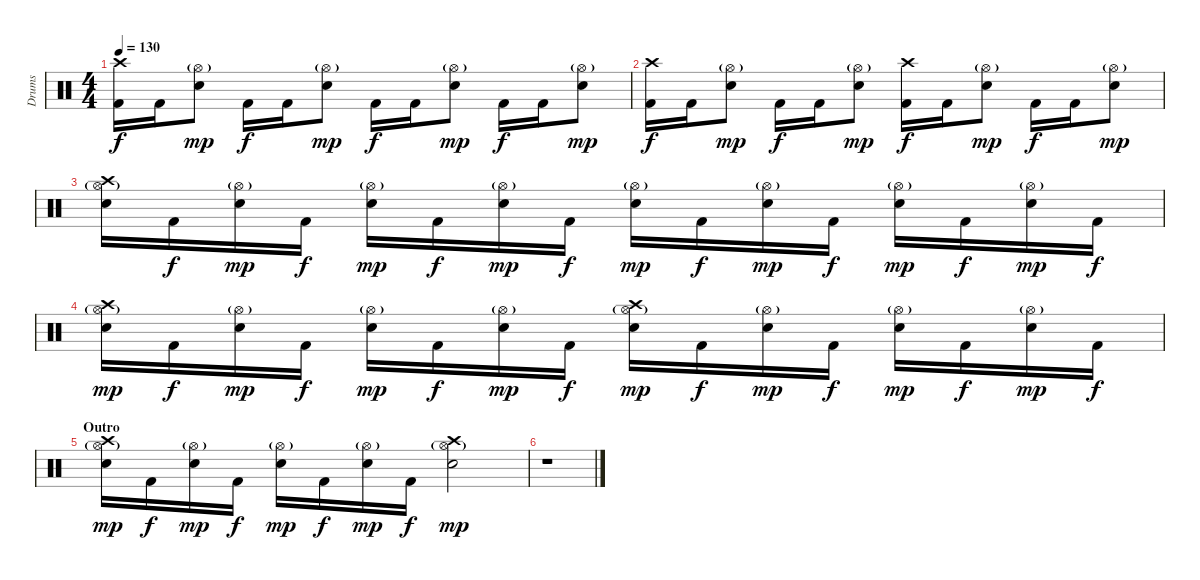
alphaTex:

\track ("Drums" "Drums") {instrument percussion}
\staff {score}
\articulation defaults
\ts (4 4)
\tempo 130
\clef neutral
\ks c
("Crash high (hit)" "Kick (hit) 2").16{dy f} "Kick (hit) 2".16 ("Hi-Hat (open)"{g} "Electric Snare (hit)").8{dy mp} "Kick (hit) 2".16{dy f} "Kick (hit) 2".16 ("Hi-Hat (open)"{g} "Electric Snare (hit)").8{dy mp} "Kick (hit) 2".16{dy f} "Kick (hit) 2".16 ("Hi-Hat (open)"{g} "Electric Snare (hit)").8{dy mp} "Kick (hit) 2".16{dy f} "Kick (hit) 2".16 ("Hi-Hat (open)"{g} "Electric Snare (hit)").8{dy mp} |
("Crash high (hit)" "Kick (hit) 2").16{dy f} "Kick (hit) 2".16 ("Hi-Hat (open)"{g} "Electric Snare (hit)").8{dy mp} "Kick (hit) 2".16{dy f} "Kick (hit) 2".16 ("Hi-Hat (open)"{g} "Electric Snare (hit)").8{dy mp} ("Crash high (hit)" "Kick (hit) 2").16{dy f} "Kick (hit) 2".16 ("Hi-Hat (open)"{g} "Electric Snare (hit)").8{dy mp} "Kick (hit) 2".16{dy f} "Kick (hit) 2".16 ("Hi-Hat (open)"{g} "Electric Snare (hit)").8{dy mp} |
("Hi-Hat (open)"{g} "Crash high (hit)" "Electric Snare (hit)").16 "Kick (hit) 2".16{dy f} ("Hi-Hat (open)"{g} "Electric Snare (hit)").16{dy mp} "Kick (hit) 2".16{dy f} ("Hi-Hat (open)"{g} "Electric Snare (hit)").16{dy mp} "Kick (hit) 2".16{dy f} ("Hi-Hat (open)"{g} "Electric Snare (hit)").16{dy mp} "Kick (hit) 2".16{dy f} ("Hi-Hat (open)"{g} "Electric Snare (hit)").16{dy mp} "Kick (hit) 2".16{dy f} ("Hi-Hat (open)"{g} "Electric Snare (hit)").16{dy mp} "Kick (hit) 2".16{dy f} ("Hi-Hat (open)"{g} "Electric Snare (hit)").16{dy mp} "Kick (hit) 2".16{dy f} ("Hi-Hat (open)"{g} "Electric Snare (hit)").16{dy mp} "Kick (hit) 2".16{dy f} |
("Hi-Hat (open)"{g} "Crash high (hit)" "Electric Snare (hit)").16{dy mp} "Kick (hit) 2".16{dy f} ("Hi-Hat (open)"{g} "Electric Snare (hit)").16{dy mp} "Kick (hit) 2".16{dy f} ("Hi-Hat (open)"{g} "Electric Snare (hit)").16{dy mp} "Kick (hit) 2".16{dy f} ("Hi-Hat (open)"{g} "Electric Snare (hit)").16{dy mp} "Kick (hit) 2".16{dy f} ("Hi-Hat (open)"{g} "Crash high (hit)" "Electric Snare (hit)").16{dy mp} "Kick (hit) 2".16{dy f} ("Hi-Hat (open)"{g} "Electric Snare (hit)").16{dy mp} "Kick (hit) 2".16{dy f} ("Hi-Hat (open)"{g} "Electric Snare (hit)").16{dy mp} "Kick (hit) 2".16{dy f} ("Hi-Hat (open)"{g} "Electric Snare (hit)").16{dy mp} "Kick (hit) 2".16{dy f} |
\section ("" "Outro")
("Hi-Hat (open)"{g} "Crash high (hit)" "Electric Snare (hit)").16{dy mp} "Kick (hit) 2".16{dy f} ("Hi-Hat (open)"{g} "Electric Snare (hit)").16{dy mp} "Kick (hit) 2".16{dy f} ("Hi-Hat (open)"{g} "Electric Snare (hit)").16{dy mp} "Kick (hit) 2".16{dy f} ("Hi-Hat (open)"{g} "Electric Snare (hit)").16{dy mp} "Kick (hit) 2".16{dy f} ("Hi-Hat (open)"{g} "Crash high (hit)" "Electric Snare (hit)").2{dy mp} |
r.1
